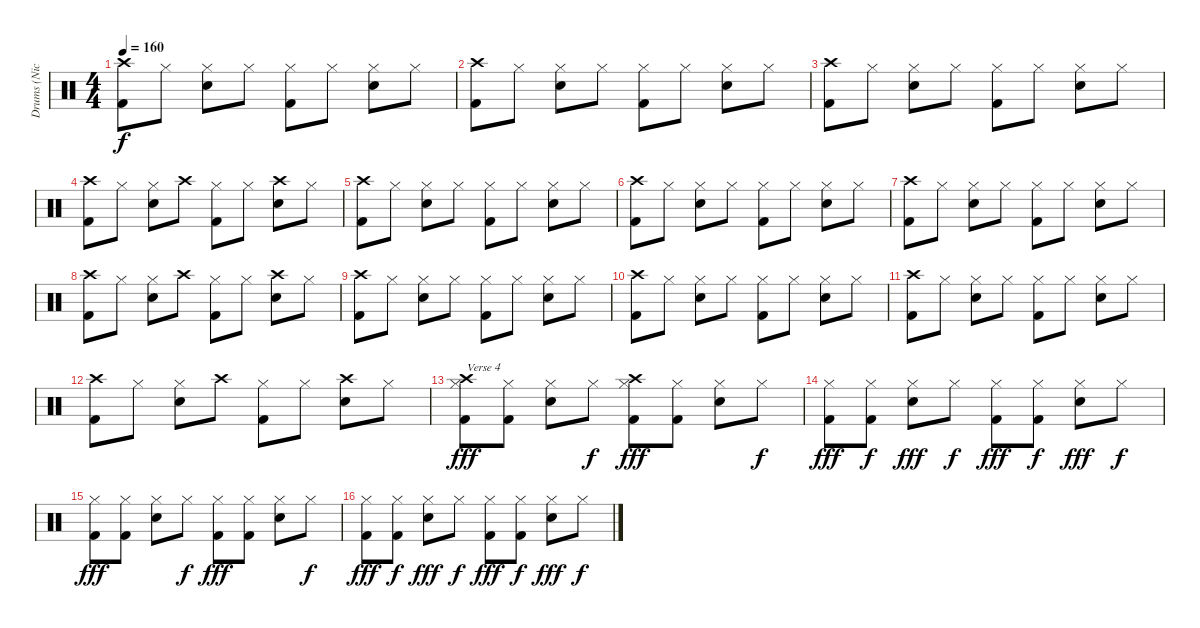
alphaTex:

\track ("Drums (Nicko)" "Drums (Nic") {instrument percussion}
\staff {score}
\articulation defaults
\ts (4 4)
\tempo 160
\clef neutral
\ks c
("Crash high (hit)" "Kick (hit) 2").8{dy f} "Hi-Hat (closed)".8 ("Hi-Hat (closed)" "Snare (hit) 2").8 "Hi-Hat (closed)".8 ("Hi-Hat (closed)" "Kick (hit) 2").8 "Hi-Hat (closed)".8 ("Hi-Hat (closed)" "Snare (hit) 2").8 "Hi-Hat (closed)".8 |
("Crash high (hit)" "Kick (hit) 2").8 "Hi-Hat (closed)".8 ("Hi-Hat (closed)" "Snare (hit) 2").8 "Hi-Hat (closed)".8 ("Hi-Hat (closed)" "Kick (hit) 2").8 "Hi-Hat (closed)".8 ("Hi-Hat (closed)" "Snare (hit) 2").8 "Hi-Hat (closed)".8 |
("Crash high (hit)" "Kick (hit) 2").8 "Hi-Hat (closed)".8 ("Hi-Hat (closed)" "Snare (hit) 2").8 "Hi-Hat (closed)".8 ("Hi-Hat (closed)" "Kick (hit) 2").8 "Hi-Hat (closed)".8 ("Hi-Hat (closed)" "Snare (hit) 2").8 "Hi-Hat (closed)".8 |
("Crash high (hit)" "Kick (hit) 2").8 "Hi-Hat (closed)".8 ("Hi-Hat (closed)" "Snare (hit) 2").8 "Crash high (hit)".8 ("Hi-Hat (closed)" "Kick (hit) 2").8 "Hi-Hat (closed)".8 ("Crash high (hit)" "Snare (hit) 2").8 "Hi-Hat (closed)".8 |
("Crash high (hit)" "Kick (hit) 2").8 "Hi-Hat (closed)".8 ("Hi-Hat (closed)" "Snare (hit) 2").8 "Hi-Hat (closed)".8 ("Hi-Hat (closed)" "Kick (hit) 2").8 "Hi-Hat (closed)".8 ("Hi-Hat (closed)" "Snare (hit) 2").8 "Hi-Hat (closed)".8 |
("Crash high (hit)" "Kick (hit) 2").8 "Hi-Hat (closed)".8 ("Hi-Hat (closed)" "Snare (hit) 2").8 "Hi-Hat (closed)".8 ("Hi-Hat (closed)" "Kick (hit) 2").8 "Hi-Hat (closed)".8 ("Hi-Hat (closed)" "Snare (hit) 2").8 "Hi-Hat (closed)".8 |
("Crash high (hit)" "Kick (hit) 2").8 "Hi-Hat (closed)".8 ("Hi-Hat (closed)" "Snare (hit) 2").8 "Hi-Hat (closed)".8 ("Hi-Hat (closed)" "Kick (hit) 2").8 "Hi-Hat (closed)".8 ("Hi-Hat (closed)" "Snare (hit) 2").8 "Hi-Hat (closed)".8 |
("Crash high (hit)" "Kick (hit) 2").8 "Hi-Hat (closed)".8 ("Hi-Hat (closed)" "Snare (hit) 2").8 "Crash high (hit)".8 ("Hi-Hat (closed)" "Kick (hit) 2").8 "Hi-Hat (closed)".8 ("Crash high (hit)" "Snare (hit) 2").8 "Hi-Hat (closed)".8 |
("Crash high (hit)" "Kick (hit) 2").8 "Hi-Hat (closed)".8 ("Hi-Hat (closed)" "Snare (hit) 2").8 "Hi-Hat (closed)".8 ("Hi-Hat (closed)" "Kick (hit) 2").8 "Hi-Hat (closed)".8 ("Hi-Hat (closed)" "Snare (hit) 2").8 "Hi-Hat (closed)".8 |
("Crash high (hit)" "Kick (hit) 2").8 "Hi-Hat (closed)".8 ("Hi-Hat (closed)" "Snare (hit) 2").8 "Hi-Hat (closed)".8 ("Hi-Hat (closed)" "Kick (hit) 2").8 "Hi-Hat (closed)".8 ("Hi-Hat (closed)" "Snare (hit) 2").8 "Hi-Hat (closed)".8 |
("Crash high (hit)" "Kick (hit) 2").8 "Hi-Hat (closed)".8 ("Hi-Hat (closed)" "Snare (hit) 2").8 "Hi-Hat (closed)".8 ("Hi-Hat (closed)" "Kick (hit) 2").8 "Hi-Hat (closed)".8 ("Hi-Hat (closed)" "Snare (hit) 2").8 "Hi-Hat (closed)".8 |
("Crash high (hit)" "Kick (hit) 2").8 "Hi-Hat (closed)".8 ("Hi-Hat (closed)" "Snare (hit) 2").8 "Crash high (hit)".8 ("Hi-Hat (closed)" "Kick (hit) 2").8 "Hi-Hat (closed)".8 ("Crash high (hit)" "Snare (hit) 2").8 "Hi-Hat (closed)".8 |
("Hi-Hat (closed)" "Kick (hit) 2" "Crash high (hit)").8{txt "Verse 4" dy fff} ("Hi-Hat (closed)" "Kick (hit) 2").8 ("Hi-Hat (closed)" "Snare (hit) 2").8 "Hi-Hat (closed)".8{dy f} ("Hi-Hat (closed)" "Kick (hit) 2" "Crash high (hit)").8{dy fff} ("Hi-Hat (closed)" "Kick (hit) 2").8 ("Hi-Hat (closed)" "Snare (hit) 2").8 "Hi-Hat (closed)".8{dy f} |
("Hi-Hat (closed)" "Kick (hit) 2").8{dy fff} ("Hi-Hat (closed)" "Kick (hit) 2").8{dy f} ("Hi-Hat (closed)" "Snare (hit) 2").8{dy fff} "Hi-Hat (closed)".8{dy f} ("Hi-Hat (closed)" "Kick (hit) 2").8{dy fff} ("Hi-Hat (closed)" "Kick (hit) 2").8{dy f} ("Hi-Hat (closed)" "Snare (hit) 2").8{dy fff} "Hi-Hat (closed)".8{dy f} |
("Hi-Hat (closed)" "Kick (hit) 2").8{dy fff} ("Hi-Hat (closed)" "Kick (hit) 2").8 ("Hi-Hat (closed)" "Snare (hit) 2").8 "Hi-Hat (closed)".8{dy f} ("Hi-Hat (closed)" "Kick (hit) 2").8{dy fff} ("Hi-Hat (closed)" "Kick (hit) 2").8 ("Hi-Hat (closed)" "Snare (hit) 2").8 "Hi-Hat (closed)".8{dy f} |
("Hi-Hat (closed)" "Kick (hit) 2").8{dy fff} ("Hi-Hat (closed)" "Kick (hit) 2").8{dy f} ("Hi-Hat (closed)" "Snare (hit) 2").8{dy fff} "Hi-Hat (closed)".8{dy f} ("Hi-Hat (closed)" "Kick (hit) 2").8{dy fff} ("Hi-Hat (closed)" "Kick (hit) 2").8{dy f} ("Hi-Hat (closed)" "Snare (hit) 2").8{dy fff} "Hi-Hat (closed)".8{dy f}
